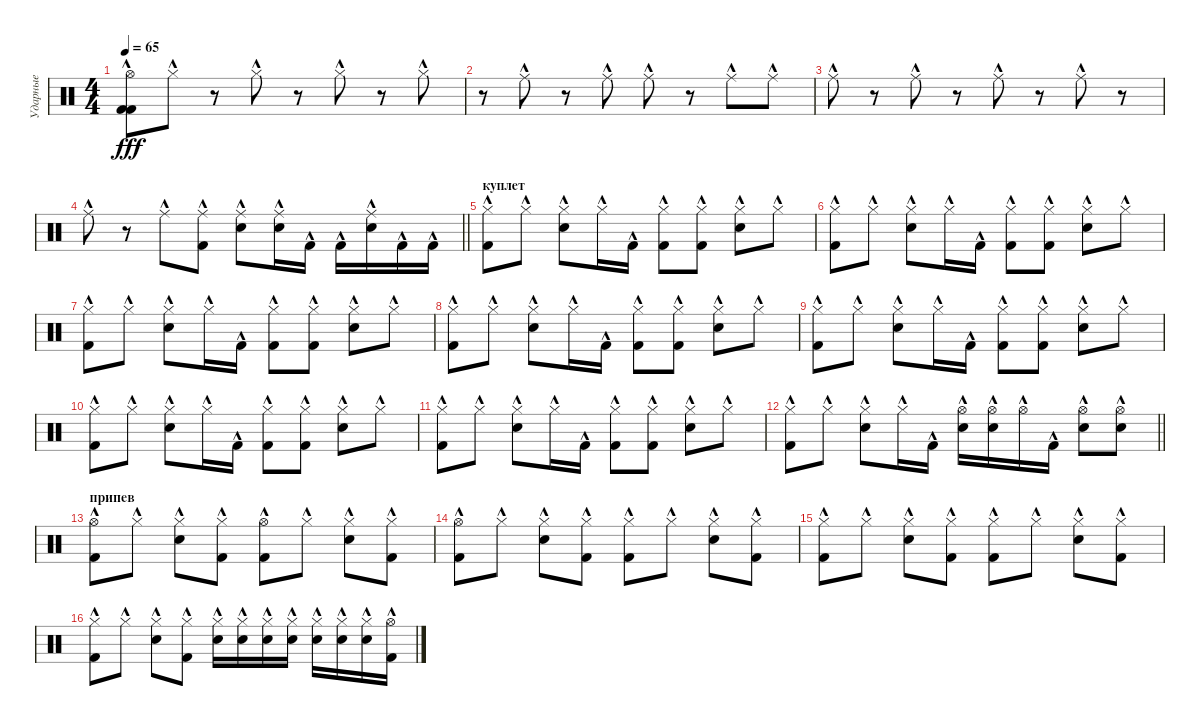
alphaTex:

\track ("Ударные" "Ударные") {instrument percussion}
\staff {score}
\articulation defaults
\ts (4 4)
\tempo 65
\clef neutral
\ks c
("Kick (hit) 2"{hac} "Kick (hit) 2"{hac} "Hi-Hat (open)"{hac}).8{dy fff} "Hi-Hat (closed)"{hac}.8 r.8 "Hi-Hat (closed)"{hac}.8 r.8 "Hi-Hat (closed)"{hac}.8 r.8 "Hi-Hat (closed)"{hac}.8 |
r.8 "Ride (middle)"{hac}.8 r.8 "Ride (middle)"{hac}.8 "Ride (middle)"{hac}.8 r.8 "Ride (middle)"{hac}.8 "Ride (middle)"{hac}.8 |
"Ride (middle)"{hac}.8 r.8 "Ride (middle)"{hac}.8 r.8 "Ride (middle)"{hac}.8 r.8 "Ride (middle)"{hac}.8 r.8 |
\barLineRight lightlight "Ride (middle)"{hac}.8
r.8 "Ride (middle)"{hac}.8 ("Kick (hit) 2"{hac} "Ride (middle)"{hac}).8 ("Electric Snare (hit)"{hac} "Ride (middle)"{hac}).8 ("Electric Snare (hit)"{hac} "Ride (middle)"{hac}).16 "Kick (hit) 2"{hac}.16 "Kick (hit) 2"{hac}.16 ("Electric Snare (hit)"{hac} "Ride (middle)"{hac}).16 "Kick (hit) 2"{hac}.16 "Kick (hit) 2"{hac}.16 |
\section ("" "куплет")
("Hi-Hat (closed)"{hac} "Kick (hit) 2"{hac}).8 "Hi-Hat (closed)"{hac}.8 ("Hi-Hat (closed)"{hac} "Electric Snare (hit)"{hac}).8 "Hi-Hat (closed)"{hac}.16 "Kick (hit) 2"{hac}.16 ("Hi-Hat (closed)"{hac} "Kick (hit) 2"{hac}).8 ("Hi-Hat (closed)"{hac} "Kick (hit) 2"{hac}).8 ("Hi-Hat (closed)"{hac} "Electric Snare (hit)"{hac}).8 "Hi-Hat (closed)"{hac}.8 |
("Hi-Hat (closed)"{hac} "Kick (hit) 2"{hac}).8 "Hi-Hat (closed)"{hac}.8 ("Hi-Hat (closed)"{hac} "Electric Snare (hit)"{hac}).8 "Hi-Hat (closed)"{hac}.16 "Kick (hit) 2"{hac}.16 ("Hi-Hat (closed)"{hac} "Kick (hit) 2"{hac}).8 ("Hi-Hat (closed)"{hac} "Kick (hit) 2"{hac}).8 ("Hi-Hat (closed)"{hac} "Electric Snare (hit)"{hac}).8 "Hi-Hat (closed)"{hac}.8 |
("Hi-Hat (closed)"{hac} "Kick (hit) 2"{hac}).8 "Hi-Hat (closed)"{hac}.8 ("Hi-Hat (closed)"{hac} "Electric Snare (hit)"{hac}).8 "Hi-Hat (closed)"{hac}.16 "Kick (hit) 2"{hac}.16 ("Hi-Hat (closed)"{hac} "Kick (hit) 2"{hac}).8 ("Hi-Hat (closed)"{hac} "Kick (hit) 2"{hac}).8 ("Hi-Hat (closed)"{hac} "Electric Snare (hit)"{hac}).8 "Hi-Hat (closed)"{hac}.8 |
("Hi-Hat (closed)"{hac} "Kick (hit) 2"{hac}).8 "Hi-Hat (closed)"{hac}.8 ("Hi-Hat (closed)"{hac} "Electric Snare (hit)"{hac}).8 "Hi-Hat (closed)"{hac}.16 "Kick (hit) 2"{hac}.16 ("Hi-Hat (closed)"{hac} "Kick (hit) 2"{hac}).8 ("Hi-Hat (closed)"{hac} "Kick (hit) 2"{hac}).8 ("Hi-Hat (closed)"{hac} "Electric Snare (hit)"{hac}).8 "Hi-Hat (closed)"{hac}.8 |
("Hi-Hat (closed)"{hac} "Kick (hit) 2"{hac}).8 "Hi-Hat (closed)"{hac}.8 ("Hi-Hat (closed)"{hac} "Electric Snare (hit)"{hac}).8 "Hi-Hat (closed)"{hac}.16 "Kick (hit) 2"{hac}.16 ("Hi-Hat (closed)"{hac} "Kick (hit) 2"{hac}).8 ("Hi-Hat (closed)"{hac} "Kick (hit) 2"{hac}).8 ("Hi-Hat (closed)"{hac} "Electric Snare (hit)"{hac}).8 "Hi-Hat (closed)"{hac}.8 |
("Hi-Hat (closed)"{hac} "Kick (hit) 2"{hac}).8 "Hi-Hat (closed)"{hac}.8 ("Hi-Hat (closed)"{hac} "Electric Snare (hit)"{hac}).8 "Hi-Hat (closed)"{hac}.16 "Kick (hit) 2"{hac}.16 ("Hi-Hat (closed)"{hac} "Kick (hit) 2"{hac}).8 ("Hi-Hat (closed)"{hac} "Kick (hit) 2"{hac}).8 ("Hi-Hat (closed)"{hac} "Electric Snare (hit)"{hac}).8 "Hi-Hat (closed)"{hac}.8 |
("Hi-Hat (closed)"{hac} "Kick (hit) 2"{hac}).8 "Hi-Hat (closed)"{hac}.8 ("Hi-Hat (closed)"{hac} "Electric Snare (hit)"{hac}).8 "Hi-Hat (closed)"{hac}.16 "Kick (hit) 2"{hac}.16 ("Hi-Hat (closed)"{hac} "Kick (hit) 2"{hac}).8 ("Hi-Hat (closed)"{hac} "Kick (hit) 2"{hac}).8 ("Hi-Hat (closed)"{hac} "Electric Snare (hit)"{hac}).8 "Hi-Hat (closed)"{hac}.8 |
\barLineRight lightlight
("Hi-Hat (closed)"{hac} "Kick (hit) 2"{hac}).8 "Hi-Hat (closed)"{hac}.8 ("Hi-Hat (closed)"{hac} "Electric Snare (hit)"{hac}).8 "Hi-Hat (closed)"{hac}.16 "Kick (hit) 2"{hac}.16 ("Hi-Hat (open)"{hac} "Electric Snare (hit)"{hac}).16 ("Hi-Hat (open)"{hac} "Electric Snare (hit)"{hac}).16 "Hi-Hat (open)"{hac}.16 "Kick (hit) 2"{hac}.16 ("Hi-Hat (open)"{hac} "Electric Snare (hit)"{hac}).8 ("Hi-Hat (open)"{hac} "Electric Snare (hit)"{hac}).8 |
\section ("" "припев")
("Hi-Hat (open)"{hac} "Kick (hit) 2"{hac}).8 "Hi-Hat (closed)"{hac}.8 ("Hi-Hat (closed)"{hac} "Electric Snare (hit)"{hac}).8 ("Hi-Hat (closed)"{hac} "Kick (hit) 2"{hac}).8 ("Hi-Hat (open)"{hac} "Kick (hit) 2"{hac}).8 "Hi-Hat (closed)"{hac}.8 ("Hi-Hat (closed)"{hac} "Electric Snare (hit)"{hac}).8 ("Hi-Hat (closed)"{hac} "Kick (hit) 2"{hac}).8 |
("Hi-Hat (open)"{hac} "Kick (hit) 2"{hac}).8 "Hi-Hat (closed)"{hac}.8 ("Hi-Hat (closed)"{hac} "Electric Snare (hit)"{hac}).8 ("Hi-Hat (closed)"{hac} "Kick (hit) 2"{hac}).8 ("Hi-Hat (closed)"{hac} "Kick (hit) 2"{hac}).8 "Hi-Hat (closed)"{hac}.8 ("Hi-Hat (closed)"{hac} "Electric Snare (hit)"{hac}).8 ("Hi-Hat (closed)"{hac} "Kick (hit) 2"{hac}).8 |
("Hi-Hat (closed)"{hac} "Kick (hit) 2"{hac}).8 "Hi-Hat (closed)"{hac}.8 ("Hi-Hat (closed)"{hac} "Electric Snare (hit)"{hac}).8 ("Hi-Hat (closed)"{hac} "Kick (hit) 2"{hac}).8 ("Hi-Hat (closed)"{hac} "Kick (hit) 2"{hac}).8 "Hi-Hat (closed)"{hac}.8 ("Hi-Hat (closed)"{hac} "Electric Snare (hit)"{hac}).8 ("Hi-Hat (closed)"{hac} "Kick (hit) 2"{hac}).8 |
("Hi-Hat (closed)"{hac} "Kick (hit) 2"{hac}).8 "Hi-Hat (closed)"{hac}.8 ("Hi-Hat (closed)"{hac} "Electric Snare (hit)"{hac}).8 ("Hi-Hat (closed)"{hac} "Kick (hit) 2"{hac}).8 ("Electric Snare (hit)"{hac} "Hi-Hat (closed)"{hac}).16 ("Electric Snare (hit)"{hac} "Hi-Hat (closed)"{hac}).16 ("Electric Snare (hit)"{hac} "Hi-Hat (closed)"{hac}).16 ("Electric Snare (hit)"{hac} "Hi-Hat (closed)"{hac}).16 ("Electric Snare (hit)"{hac} "Hi-Hat (closed)"{hac}).16 ("Electric Snare (hit)"{hac} "Hi-Hat (closed)"{hac}).16 ("Electric Snare (hit)"{hac} "Hi-Hat (closed)"{hac}).16 ("Hi-Hat (open)"{hac} "Kick (hit) 2"{hac}).16
